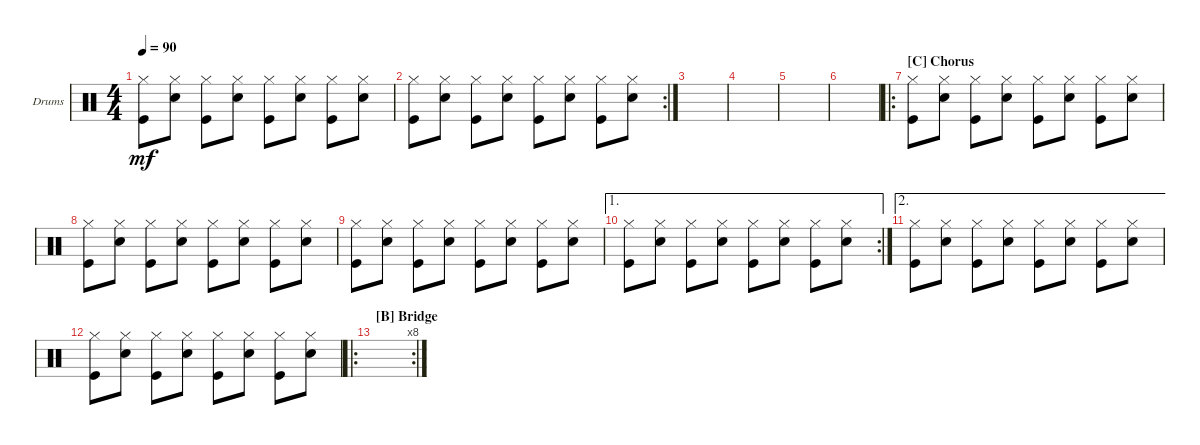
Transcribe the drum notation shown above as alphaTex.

\defaultSystemsLayout 4
\bracketExtendMode groupsimilarinstruments
\firstSystemTrackNameOrientation horizontal
\otherSystemsTrackNameOrientation horizontal
\track ("Drumkit" "Drums") {instrument percussion}
\staff {score}
\articulation defaults
\ts (4 4)
\tempo 90
\clef neutral
\ks c
("Hi-Hat (closed)" "Kick (hit)").8{dy mf} ("Hi-Hat (closed)" "Snare (hit) 2").8 ("Hi-Hat (closed)" "Kick (hit)").8 ("Hi-Hat (closed)" "Snare (hit) 2").8 ("Hi-Hat (closed)" "Kick (hit)").8 ("Hi-Hat (closed)" "Snare (hit) 2").8 ("Hi-Hat (closed)" "Kick (hit)").8 ("Hi-Hat (closed)" "Snare (hit) 2").8 |
\rc 2
("Hi-Hat (closed)" "Kick (hit)").8 ("Hi-Hat (closed)" "Snare (hit) 2").8 ("Hi-Hat (closed)" "Kick (hit)").8 ("Hi-Hat (closed)" "Snare (hit) 2").8 ("Hi-Hat (closed)" "Kick (hit)").8 ("Hi-Hat (closed)" "Snare (hit) 2").8 ("Hi-Hat (closed)" "Kick (hit)").8 ("Hi-Hat (closed)" "Snare (hit) 2").8 |
|
|
|
|
\ro
\section ("C" "Chorus")
("Hi-Hat (closed)" "Kick (hit)").8 ("Hi-Hat (closed)" "Snare (hit) 2").8 ("Hi-Hat (closed)" "Kick (hit)").8 ("Hi-Hat (closed)" "Snare (hit) 2").8 ("Hi-Hat (closed)" "Kick (hit)").8 ("Hi-Hat (closed)" "Snare (hit) 2").8 ("Hi-Hat (closed)" "Kick (hit)").8 ("Hi-Hat (closed)" "Snare (hit) 2").8 |
("Hi-Hat (closed)" "Kick (hit)").8 ("Hi-Hat (closed)" "Snare (hit) 2").8 ("Hi-Hat (closed)" "Kick (hit)").8 ("Hi-Hat (closed)" "Snare (hit) 2").8 ("Hi-Hat (closed)" "Kick (hit)").8 ("Hi-Hat (closed)" "Snare (hit) 2").8 ("Hi-Hat (closed)" "Kick (hit)").8 ("Hi-Hat (closed)" "Snare (hit) 2").8 |
("Hi-Hat (closed)" "Kick (hit)").8 ("Hi-Hat (closed)" "Snare (hit) 2").8 ("Hi-Hat (closed)" "Kick (hit)").8 ("Hi-Hat (closed)" "Snare (hit) 2").8 ("Hi-Hat (closed)" "Kick (hit)").8 ("Hi-Hat (closed)" "Snare (hit) 2").8 ("Hi-Hat (closed)" "Kick (hit)").8 ("Hi-Hat (closed)" "Snare (hit) 2").8 |
\ae 1
\rc 2
("Hi-Hat (closed)" "Kick (hit)").8 ("Hi-Hat (closed)" "Snare (hit) 2").8 ("Hi-Hat (closed)" "Kick (hit)").8 ("Hi-Hat (closed)" "Snare (hit) 2").8 ("Hi-Hat (closed)" "Kick (hit)").8 ("Hi-Hat (closed)" "Snare (hit) 2").8 ("Hi-Hat (closed)" "Kick (hit)").8 ("Hi-Hat (closed)" "Snare (hit) 2").8 |
\ae 2
("Hi-Hat (closed)" "Kick (hit)").8 ("Hi-Hat (closed)" "Snare (hit) 2").8 ("Hi-Hat (closed)" "Kick (hit)").8 ("Hi-Hat (closed)" "Snare (hit) 2").8 ("Hi-Hat (closed)" "Kick (hit)").8 ("Hi-Hat (closed)" "Snare (hit) 2").8 ("Hi-Hat (closed)" "Kick (hit)").8 ("Hi-Hat (closed)" "Snare (hit) 2").8 |
("Hi-Hat (closed)" "Kick (hit)").8 ("Hi-Hat (closed)" "Snare (hit) 2").8 ("Hi-Hat (closed)" "Kick (hit)").8 ("Hi-Hat (closed)" "Snare (hit) 2").8 ("Hi-Hat (closed)" "Kick (hit)").8 ("Hi-Hat (closed)" "Snare (hit) 2").8 ("Hi-Hat (closed)" "Kick (hit)").8 ("Hi-Hat (closed)" "Snare (hit) 2").8 |
\ro
\rc 8
\section ("B" "Bridge")
